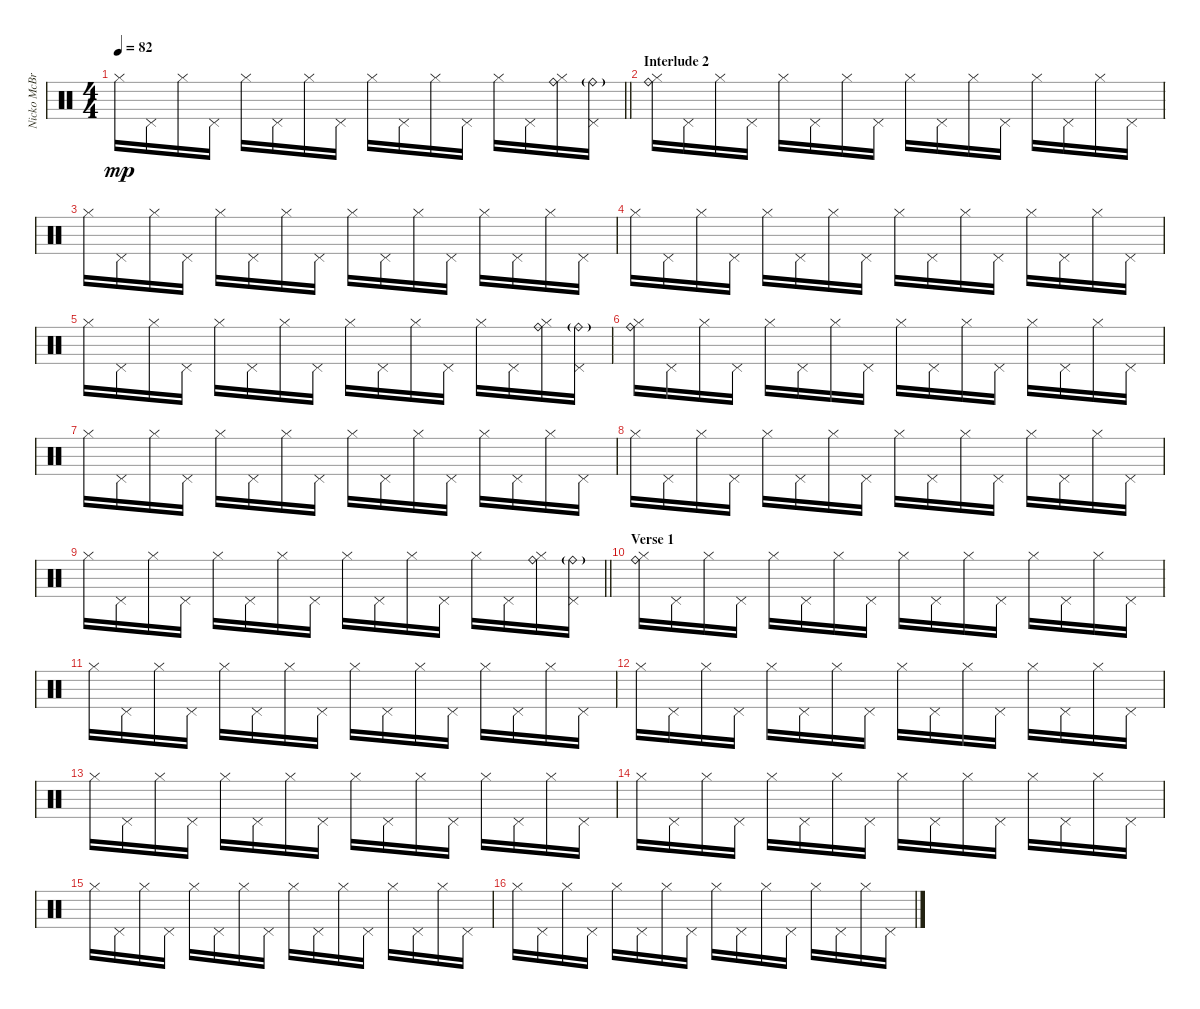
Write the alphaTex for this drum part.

\track ("Nicko McBrain" "Nicko McBr") {instrument percussion}
\staff {score}
\articulation defaults
\ts (4 4)
\tempo 82
\clef neutral
\barLineRight lightlight
\ks c "Hi-Hat (closed)".16{dy mp} "Pedal Hi-Hat (hit)".16 "Hi-Hat (closed)".16 "Pedal Hi-Hat (hit)".16 "Hi-Hat (closed)".16 "Pedal Hi-Hat (hit)".16 "Hi-Hat (closed)".16 "Pedal Hi-Hat (hit)".16 "Hi-Hat (closed)".16 "Pedal Hi-Hat (hit)".16 "Hi-Hat (closed)".16 "Pedal Hi-Hat (hit)".16 "Hi-Hat (closed)".16 "Pedal Hi-Hat (hit)".16
("Hi-Hat (closed)" "Ride (bell)").16 ("Pedal Hi-Hat (hit)" "Ride (bell)"{g}).16 |
\section ("" "Interlude 2")
("Hi-Hat (closed)" "Ride (bell)").16 "Pedal Hi-Hat (hit)".16 "Hi-Hat (closed)".16 "Pedal Hi-Hat (hit)".16 "Hi-Hat (closed)".16 "Pedal Hi-Hat (hit)".16 "Hi-Hat (closed)".16 "Pedal Hi-Hat (hit)".16 "Hi-Hat (closed)".16 "Pedal Hi-Hat (hit)".16 "Hi-Hat (closed)".16 "Pedal Hi-Hat (hit)".16 "Hi-Hat (closed)".16 "Pedal Hi-Hat (hit)".16 "Hi-Hat (closed)".16 "Pedal Hi-Hat (hit)".16 |
"Hi-Hat (closed)".16 "Pedal Hi-Hat (hit)".16 "Hi-Hat (closed)".16 "Pedal Hi-Hat (hit)".16 "Hi-Hat (closed)".16 "Pedal Hi-Hat (hit)".16 "Hi-Hat (closed)".16 "Pedal Hi-Hat (hit)".16 "Hi-Hat (closed)".16 "Pedal Hi-Hat (hit)".16 "Hi-Hat (closed)".16 "Pedal Hi-Hat (hit)".16 "Hi-Hat (closed)".16 "Pedal Hi-Hat (hit)".16 "Hi-Hat (closed)".16 "Pedal Hi-Hat (hit)".16 |
"Hi-Hat (closed)".16 "Pedal Hi-Hat (hit)".16 "Hi-Hat (closed)".16 "Pedal Hi-Hat (hit)".16 "Hi-Hat (closed)".16 "Pedal Hi-Hat (hit)".16 "Hi-Hat (closed)".16 "Pedal Hi-Hat (hit)".16 "Hi-Hat (closed)".16 "Pedal Hi-Hat (hit)".16 "Hi-Hat (closed)".16 "Pedal Hi-Hat (hit)".16 "Hi-Hat (closed)".16 "Pedal Hi-Hat (hit)".16 "Hi-Hat (closed)".16 "Pedal Hi-Hat (hit)".16 |
"Hi-Hat (closed)".16 "Pedal Hi-Hat (hit)".16 "Hi-Hat (closed)".16 "Pedal Hi-Hat (hit)".16 "Hi-Hat (closed)".16 "Pedal Hi-Hat (hit)".16 "Hi-Hat (closed)".16 "Pedal Hi-Hat (hit)".16 "Hi-Hat (closed)".16 "Pedal Hi-Hat (hit)".16 "Hi-Hat (closed)".16 "Pedal Hi-Hat (hit)".16 "Hi-Hat (closed)".16 "Pedal Hi-Hat (hit)".16 ("Hi-Hat (closed)" "Ride (bell)").16 ("Pedal Hi-Hat (hit)" "Ride (bell)"{g}).16 |
("Hi-Hat (closed)" "Ride (bell)").16 "Pedal Hi-Hat (hit)".16 "Hi-Hat (closed)".16 "Pedal Hi-Hat (hit)".16 "Hi-Hat (closed)".16 "Pedal Hi-Hat (hit)".16 "Hi-Hat (closed)".16 "Pedal Hi-Hat (hit)".16 "Hi-Hat (closed)".16 "Pedal Hi-Hat (hit)".16 "Hi-Hat (closed)".16 "Pedal Hi-Hat (hit)".16 "Hi-Hat (closed)".16 "Pedal Hi-Hat (hit)".16 "Hi-Hat (closed)".16 "Pedal Hi-Hat (hit)".16 |
"Hi-Hat (closed)".16 "Pedal Hi-Hat (hit)".16 "Hi-Hat (closed)".16 "Pedal Hi-Hat (hit)".16 "Hi-Hat (closed)".16 "Pedal Hi-Hat (hit)".16 "Hi-Hat (closed)".16 "Pedal Hi-Hat (hit)".16 "Hi-Hat (closed)".16 "Pedal Hi-Hat (hit)".16 "Hi-Hat (closed)".16 "Pedal Hi-Hat (hit)".16 "Hi-Hat (closed)".16 "Pedal Hi-Hat (hit)".16 "Hi-Hat (closed)".16 "Pedal Hi-Hat (hit)".16 |
"Hi-Hat (closed)".16 "Pedal Hi-Hat (hit)".16 "Hi-Hat (closed)".16 "Pedal Hi-Hat (hit)".16 "Hi-Hat (closed)".16 "Pedal Hi-Hat (hit)".16 "Hi-Hat (closed)".16 "Pedal Hi-Hat (hit)".16 "Hi-Hat (closed)".16 "Pedal Hi-Hat (hit)".16 "Hi-Hat (closed)".16 "Pedal Hi-Hat (hit)".16 "Hi-Hat (closed)".16 "Pedal Hi-Hat (hit)".16 "Hi-Hat (closed)".16 "Pedal Hi-Hat (hit)".16 |
\barLineRight lightlight "Hi-Hat (closed)".16 "Pedal Hi-Hat (hit)".16 "Hi-Hat (closed)".16 "Pedal Hi-Hat (hit)".16 "Hi-Hat (closed)".16 "Pedal Hi-Hat (hit)".16 "Hi-Hat (closed)".16 "Pedal Hi-Hat (hit)".16 "Hi-Hat (closed)".16 "Pedal Hi-Hat (hit)".16 "Hi-Hat (closed)".16 "Pedal Hi-Hat (hit)".16 "Hi-Hat (closed)".16 "Pedal Hi-Hat (hit)".16
("Hi-Hat (closed)" "Ride (bell)").16 ("Pedal Hi-Hat (hit)" "Ride (bell)"{g}).16 |
\section ("" "Verse 1")
("Hi-Hat (closed)" "Ride (bell)").16 "Pedal Hi-Hat (hit)".16 "Hi-Hat (closed)".16 "Pedal Hi-Hat (hit)".16 "Hi-Hat (closed)".16 "Pedal Hi-Hat (hit)".16 "Hi-Hat (closed)".16 "Pedal Hi-Hat (hit)".16 "Hi-Hat (closed)".16 "Pedal Hi-Hat (hit)".16 "Hi-Hat (closed)".16 "Pedal Hi-Hat (hit)".16 "Hi-Hat (closed)".16 "Pedal Hi-Hat (hit)".16 "Hi-Hat (closed)".16 "Pedal Hi-Hat (hit)".16 |
"Hi-Hat (closed)".16 "Pedal Hi-Hat (hit)".16 "Hi-Hat (closed)".16 "Pedal Hi-Hat (hit)".16 "Hi-Hat (closed)".16 "Pedal Hi-Hat (hit)".16 "Hi-Hat (closed)".16 "Pedal Hi-Hat (hit)".16 "Hi-Hat (closed)".16 "Pedal Hi-Hat (hit)".16 "Hi-Hat (closed)".16 "Pedal Hi-Hat (hit)".16 "Hi-Hat (closed)".16 "Pedal Hi-Hat (hit)".16 "Hi-Hat (closed)".16 "Pedal Hi-Hat (hit)".16 |
"Hi-Hat (closed)".16 "Pedal Hi-Hat (hit)".16 "Hi-Hat (closed)".16 "Pedal Hi-Hat (hit)".16 "Hi-Hat (closed)".16 "Pedal Hi-Hat (hit)".16 "Hi-Hat (closed)".16 "Pedal Hi-Hat (hit)".16 "Hi-Hat (closed)".16 "Pedal Hi-Hat (hit)".16 "Hi-Hat (closed)".16 "Pedal Hi-Hat (hit)".16 "Hi-Hat (closed)".16 "Pedal Hi-Hat (hit)".16 "Hi-Hat (closed)".16 "Pedal Hi-Hat (hit)".16 |
"Hi-Hat (closed)".16 "Pedal Hi-Hat (hit)".16 "Hi-Hat (closed)".16 "Pedal Hi-Hat (hit)".16 "Hi-Hat (closed)".16 "Pedal Hi-Hat (hit)".16 "Hi-Hat (closed)".16 "Pedal Hi-Hat (hit)".16 "Hi-Hat (closed)".16 "Pedal Hi-Hat (hit)".16 "Hi-Hat (closed)".16 "Pedal Hi-Hat (hit)".16 "Hi-Hat (closed)".16 "Pedal Hi-Hat (hit)".16 "Hi-Hat (closed)".16 "Pedal Hi-Hat (hit)".16 |
"Hi-Hat (closed)".16 "Pedal Hi-Hat (hit)".16 "Hi-Hat (closed)".16 "Pedal Hi-Hat (hit)".16 "Hi-Hat (closed)".16 "Pedal Hi-Hat (hit)".16 "Hi-Hat (closed)".16 "Pedal Hi-Hat (hit)".16 "Hi-Hat (closed)".16 "Pedal Hi-Hat (hit)".16 "Hi-Hat (closed)".16 "Pedal Hi-Hat (hit)".16 "Hi-Hat (closed)".16 "Pedal Hi-Hat (hit)".16 "Hi-Hat (closed)".16 "Pedal Hi-Hat (hit)".16 |
"Hi-Hat (closed)".16 "Pedal Hi-Hat (hit)".16 "Hi-Hat (closed)".16 "Pedal Hi-Hat (hit)".16 "Hi-Hat (closed)".16 "Pedal Hi-Hat (hit)".16 "Hi-Hat (closed)".16 "Pedal Hi-Hat (hit)".16 "Hi-Hat (closed)".16 "Pedal Hi-Hat (hit)".16 "Hi-Hat (closed)".16 "Pedal Hi-Hat (hit)".16 "Hi-Hat (closed)".16 "Pedal Hi-Hat (hit)".16 "Hi-Hat (closed)".16 "Pedal Hi-Hat (hit)".16 |
"Hi-Hat (closed)".16 "Pedal Hi-Hat (hit)".16 "Hi-Hat (closed)".16 "Pedal Hi-Hat (hit)".16 "Hi-Hat (closed)".16 "Pedal Hi-Hat (hit)".16 "Hi-Hat (closed)".16 "Pedal Hi-Hat (hit)".16 "Hi-Hat (closed)".16 "Pedal Hi-Hat (hit)".16 "Hi-Hat (closed)".16 "Pedal Hi-Hat (hit)".16 "Hi-Hat (closed)".16 "Pedal Hi-Hat (hit)".16 "Hi-Hat (closed)".16 "Pedal Hi-Hat (hit)".16
